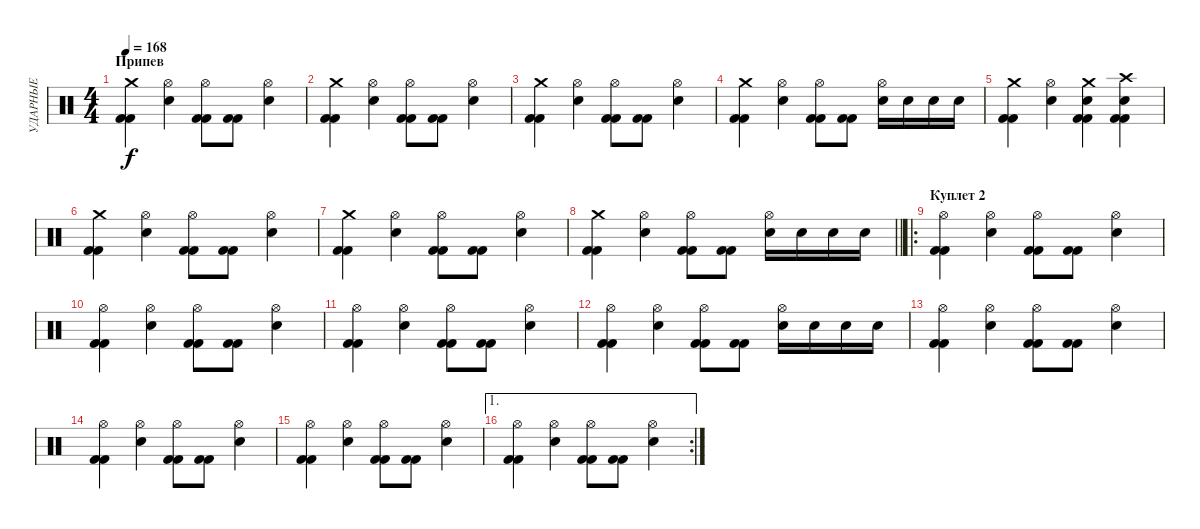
\track ("УДАРНЫЕ" "УДАРНЫЕ") {instrument percussion}
\staff {score}
\articulation defaults
\ts (4 4)
\section ("" "Припев")
\tempo 168
\clef neutral
\ks c
("Crash medium (hit)" "Kick (hit) 2" "Kick (hit) 2").4{dy f} ("Hi-Hat (open)" "Snare (hit) 2").4 ("Hi-Hat (open)" "Kick (hit) 2" "Kick (hit) 2").8 ("Kick (hit) 2" "Kick (hit) 2").8 ("Hi-Hat (open)" "Snare (hit) 2").4 |
("Crash medium (hit)" "Kick (hit) 2" "Kick (hit) 2").4 ("Hi-Hat (open)" "Snare (hit) 2").4 ("Hi-Hat (open)" "Kick (hit) 2" "Kick (hit) 2").8 ("Kick (hit) 2" "Kick (hit) 2").8 ("Hi-Hat (open)" "Snare (hit) 2").4 |
("Crash medium (hit)" "Kick (hit) 2" "Kick (hit) 2").4 ("Hi-Hat (open)" "Snare (hit) 2").4 ("Hi-Hat (open)" "Kick (hit) 2" "Kick (hit) 2").8 ("Kick (hit) 2" "Kick (hit) 2").8 ("Hi-Hat (open)" "Snare (hit) 2").4 |
("Crash medium (hit)" "Kick (hit) 2" "Kick (hit) 2").4 ("Hi-Hat (open)" "Snare (hit) 2").4 ("Hi-Hat (open)" "Kick (hit) 2" "Kick (hit) 2").8 ("Kick (hit) 2" "Kick (hit) 2").8 ("Hi-Hat (open)" "Snare (hit) 2").16 "Snare (hit) 2".16 "Snare (hit) 2".16 "Snare (hit) 2".16 |
("Crash medium (hit)" "Kick (hit) 2" "Kick (hit) 2").4 ("Hi-Hat (open)" "Snare (hit) 2").4 ("Crash medium (hit)" "Snare (hit) 2" "Kick (hit) 2" "Kick (hit) 2").4 ("Crash high (hit)" "Snare (hit) 2" "Kick (hit) 2" "Kick (hit) 2").4 |
("Crash medium (hit)" "Kick (hit) 2" "Kick (hit) 2").4 ("Hi-Hat (open)" "Snare (hit) 2").4 ("Hi-Hat (open)" "Kick (hit) 2" "Kick (hit) 2").8 ("Kick (hit) 2" "Kick (hit) 2").8 ("Hi-Hat (open)" "Snare (hit) 2").4 |
("Crash medium (hit)" "Kick (hit) 2" "Kick (hit) 2").4 ("Hi-Hat (open)" "Snare (hit) 2").4 ("Hi-Hat (open)" "Kick (hit) 2" "Kick (hit) 2").8 ("Kick (hit) 2" "Kick (hit) 2").8 ("Hi-Hat (open)" "Snare (hit) 2").4 |
\barLineRight lightlight
("Crash medium (hit)" "Kick (hit) 2" "Kick (hit) 2").4 ("Hi-Hat (open)" "Snare (hit) 2").4 ("Hi-Hat (open)" "Kick (hit) 2" "Kick (hit) 2").8 ("Kick (hit) 2" "Kick (hit) 2").8 ("Hi-Hat (open)" "Snare (hit) 2").16 "Snare (hit) 2".16 "Snare (hit) 2".16 "Snare (hit) 2".16 |
\ro
\section ("" "Куплет 2")
("Hi-Hat (open)" "Kick (hit) 2" "Kick (hit) 2").4 ("Hi-Hat (open)" "Snare (hit) 2").4 ("Hi-Hat (open)" "Kick (hit) 2" "Kick (hit) 2").8 ("Kick (hit) 2" "Kick (hit) 2").8 ("Hi-Hat (open)" "Snare (hit) 2").4 |
("Hi-Hat (open)" "Kick (hit) 2" "Kick (hit) 2").4 ("Hi-Hat (open)" "Snare (hit) 2").4 ("Hi-Hat (open)" "Kick (hit) 2" "Kick (hit) 2").8 ("Kick (hit) 2" "Kick (hit) 2").8 ("Hi-Hat (open)" "Snare (hit) 2").4 |
("Hi-Hat (open)" "Kick (hit) 2" "Kick (hit) 2").4 ("Hi-Hat (open)" "Snare (hit) 2").4 ("Hi-Hat (open)" "Kick (hit) 2" "Kick (hit) 2").8 ("Kick (hit) 2" "Kick (hit) 2").8 ("Hi-Hat (open)" "Snare (hit) 2").4 |
("Hi-Hat (open)" "Kick (hit) 2" "Kick (hit) 2").4 ("Hi-Hat (open)" "Snare (hit) 2").4 ("Hi-Hat (open)" "Kick (hit) 2" "Kick (hit) 2").8 ("Kick (hit) 2" "Kick (hit) 2").8 ("Hi-Hat (open)" "Snare (hit) 2").16 "Snare (hit) 2".16 "Snare (hit) 2".16 "Snare (hit) 2".16 |
("Hi-Hat (open)" "Kick (hit) 2" "Kick (hit) 2").4 ("Hi-Hat (open)" "Snare (hit) 2").4 ("Hi-Hat (open)" "Kick (hit) 2" "Kick (hit) 2").8 ("Kick (hit) 2" "Kick (hit) 2").8 ("Hi-Hat (open)" "Snare (hit) 2").4 |
("Hi-Hat (open)" "Kick (hit) 2" "Kick (hit) 2").4 ("Hi-Hat (open)" "Snare (hit) 2").4 ("Hi-Hat (open)" "Kick (hit) 2" "Kick (hit) 2").8 ("Kick (hit) 2" "Kick (hit) 2").8 ("Hi-Hat (open)" "Snare (hit) 2").4 |
("Hi-Hat (open)" "Kick (hit) 2" "Kick (hit) 2").4 ("Hi-Hat (open)" "Snare (hit) 2").4 ("Hi-Hat (open)" "Kick (hit) 2" "Kick (hit) 2").8 ("Kick (hit) 2" "Kick (hit) 2").8 ("Hi-Hat (open)" "Snare (hit) 2").4 |
\ae 1
\rc 2
("Hi-Hat (open)" "Kick (hit) 2" "Kick (hit) 2").4 ("Hi-Hat (open)" "Snare (hit) 2").4 ("Hi-Hat (open)" "Kick (hit) 2" "Kick (hit) 2").8 ("Kick (hit) 2" "Kick (hit) 2").8 ("Hi-Hat (open)" "Snare (hit) 2").4
